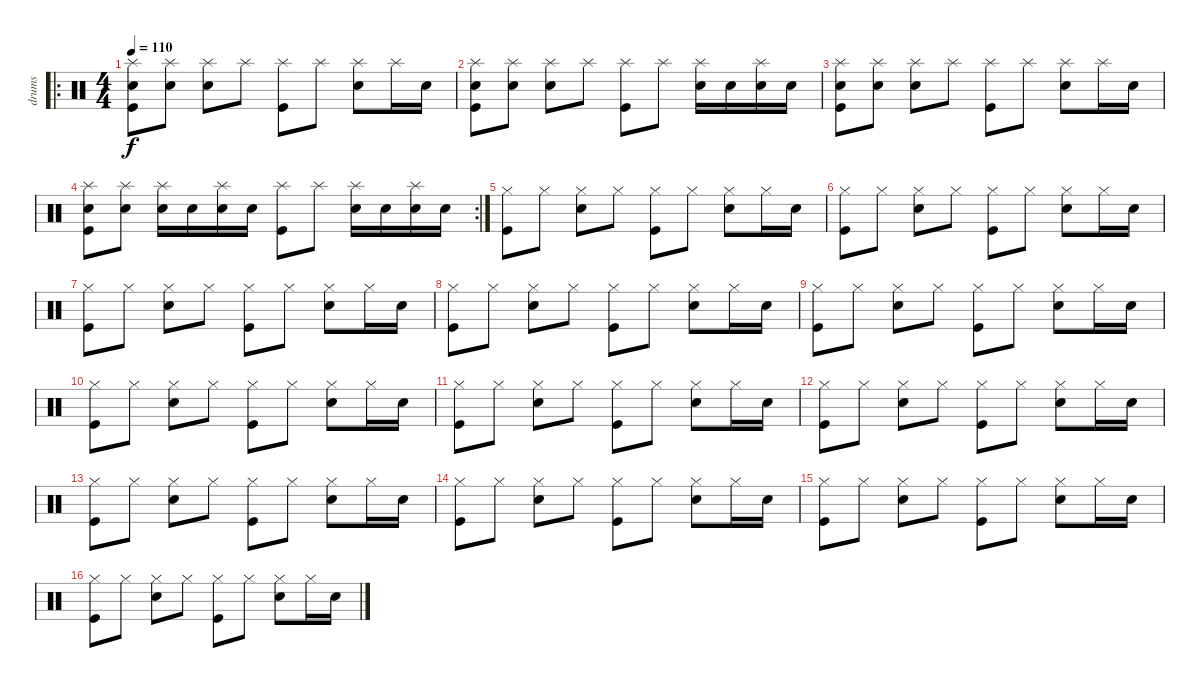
\track ("drums" "drums") {instrument percussion}
\staff {score}
\articulation defaults
\ro
\ts (4 4)
\tempo 110
\clef neutral
\ks c
("Splash (hit)" "Snare (hit) 2" "Kick (hit)").8{dy f} ("Splash (hit)" "Snare (hit) 2").8 ("Splash (hit)" "Snare (hit) 2").8 "Splash (hit)".8 ("Splash (hit)" "Kick (hit)").8 "Splash (hit)".8 ("Splash (hit)" "Snare (hit) 2").8 "Splash (hit)".16 "Snare (hit) 2".16 |
("Splash (hit)" "Snare (hit) 2" "Kick (hit)").8 ("Splash (hit)" "Snare (hit) 2").8 ("Splash (hit)" "Snare (hit) 2").8 "Splash (hit)".8 ("Splash (hit)" "Kick (hit)").8 "Splash (hit)".8 ("Splash (hit)" "Snare (hit) 2").16 "Snare (hit) 2".16 ("Splash (hit)" "Snare (hit) 2").16 "Snare (hit) 2".16 |
("Splash (hit)" "Snare (hit) 2" "Kick (hit)").8 ("Splash (hit)" "Snare (hit) 2").8 ("Splash (hit)" "Snare (hit) 2").8 "Splash (hit)".8 ("Splash (hit)" "Kick (hit)").8 "Splash (hit)".8 ("Splash (hit)" "Snare (hit) 2").8 "Splash (hit)".16 "Snare (hit) 2".16 |
\rc 2
("Splash (hit)" "Snare (hit) 2" "Kick (hit)").8 ("Splash (hit)" "Snare (hit) 2").8 ("Splash (hit)" "Snare (hit) 2").16 "Snare (hit) 2".16 ("Splash (hit)" "Snare (hit) 2").16 "Snare (hit) 2".16 ("Splash (hit)" "Kick (hit)").8 "Splash (hit)".8 ("Splash (hit)" "Snare (hit) 2").16 "Snare (hit) 2".16 ("Splash (hit)" "Snare (hit) 2").16 "Snare (hit) 2".16 |
("Hi-Hat (closed)" "Kick (hit)").8 "Hi-Hat (closed)".8 ("Hi-Hat (closed)" "Snare (hit) 2").8 "Hi-Hat (closed)".8 ("Hi-Hat (closed)" "Kick (hit)").8 "Hi-Hat (closed)".8 ("Hi-Hat (closed)" "Snare (hit) 2").8 "Hi-Hat (closed)".16 "Snare (hit) 2".16 |
("Hi-Hat (closed)" "Kick (hit)").8 "Hi-Hat (closed)".8 ("Hi-Hat (closed)" "Snare (hit) 2").8 "Hi-Hat (closed)".8 ("Hi-Hat (closed)" "Kick (hit)").8 "Hi-Hat (closed)".8 ("Hi-Hat (closed)" "Snare (hit) 2").8 "Hi-Hat (closed)".16 "Snare (hit) 2".16 |
("Hi-Hat (closed)" "Kick (hit)").8 "Hi-Hat (closed)".8 ("Hi-Hat (closed)" "Snare (hit) 2").8 "Hi-Hat (closed)".8 ("Hi-Hat (closed)" "Kick (hit)").8 "Hi-Hat (closed)".8 ("Hi-Hat (closed)" "Snare (hit) 2").8 "Hi-Hat (closed)".16 "Snare (hit) 2".16 |
("Hi-Hat (closed)" "Kick (hit)").8 "Hi-Hat (closed)".8 ("Hi-Hat (closed)" "Snare (hit) 2").8 "Hi-Hat (closed)".8 ("Hi-Hat (closed)" "Kick (hit)").8 "Hi-Hat (closed)".8 ("Hi-Hat (closed)" "Snare (hit) 2").8 "Hi-Hat (closed)".16 "Snare (hit) 2".16 |
("Hi-Hat (closed)" "Kick (hit)").8 "Hi-Hat (closed)".8 ("Hi-Hat (closed)" "Snare (hit) 2").8 "Hi-Hat (closed)".8 ("Hi-Hat (closed)" "Kick (hit)").8 "Hi-Hat (closed)".8 ("Hi-Hat (closed)" "Snare (hit) 2").8 "Hi-Hat (closed)".16 "Snare (hit) 2".16 |
("Hi-Hat (closed)" "Kick (hit)").8 "Hi-Hat (closed)".8 ("Hi-Hat (closed)" "Snare (hit) 2").8 "Hi-Hat (closed)".8 ("Hi-Hat (closed)" "Kick (hit)").8 "Hi-Hat (closed)".8 ("Hi-Hat (closed)" "Snare (hit) 2").8 "Hi-Hat (closed)".16 "Snare (hit) 2".16 |
("Hi-Hat (closed)" "Kick (hit)").8 "Hi-Hat (closed)".8 ("Hi-Hat (closed)" "Snare (hit) 2").8 "Hi-Hat (closed)".8 ("Hi-Hat (closed)" "Kick (hit)").8 "Hi-Hat (closed)".8 ("Hi-Hat (closed)" "Snare (hit) 2").8 "Hi-Hat (closed)".16 "Snare (hit) 2".16 |
("Hi-Hat (closed)" "Kick (hit)").8 "Hi-Hat (closed)".8 ("Hi-Hat (closed)" "Snare (hit) 2").8 "Hi-Hat (closed)".8 ("Hi-Hat (closed)" "Kick (hit)").8 "Hi-Hat (closed)".8 ("Hi-Hat (closed)" "Snare (hit) 2").8 "Hi-Hat (closed)".16 "Snare (hit) 2".16 |
("Hi-Hat (closed)" "Kick (hit)").8 "Hi-Hat (closed)".8 ("Hi-Hat (closed)" "Snare (hit) 2").8 "Hi-Hat (closed)".8 ("Hi-Hat (closed)" "Kick (hit)").8 "Hi-Hat (closed)".8 ("Hi-Hat (closed)" "Snare (hit) 2").8 "Hi-Hat (closed)".16 "Snare (hit) 2".16 |
("Hi-Hat (closed)" "Kick (hit)").8 "Hi-Hat (closed)".8 ("Hi-Hat (closed)" "Snare (hit) 2").8 "Hi-Hat (closed)".8 ("Hi-Hat (closed)" "Kick (hit)").8 "Hi-Hat (closed)".8 ("Hi-Hat (closed)" "Snare (hit) 2").8 "Hi-Hat (closed)".16 "Snare (hit) 2".16 |
("Hi-Hat (closed)" "Kick (hit)").8 "Hi-Hat (closed)".8 ("Hi-Hat (closed)" "Snare (hit) 2").8 "Hi-Hat (closed)".8 ("Hi-Hat (closed)" "Kick (hit)").8 "Hi-Hat (closed)".8 ("Hi-Hat (closed)" "Snare (hit) 2").8 "Hi-Hat (closed)".16 "Snare (hit) 2".16 |
("Hi-Hat (closed)" "Kick (hit)").8 "Hi-Hat (closed)".8 ("Hi-Hat (closed)" "Snare (hit) 2").8 "Hi-Hat (closed)".8 ("Hi-Hat (closed)" "Kick (hit)").8 "Hi-Hat (closed)".8 ("Hi-Hat (closed)" "Snare (hit) 2").8 "Hi-Hat (closed)".16 "Snare (hit) 2".16
